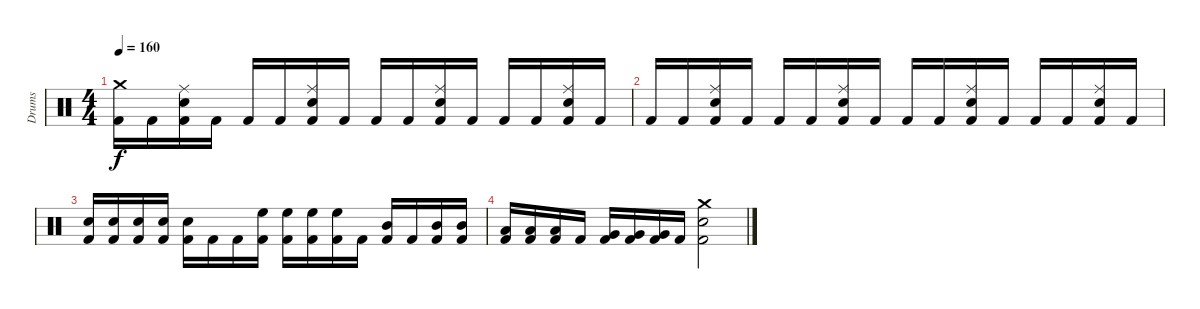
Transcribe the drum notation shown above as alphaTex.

\track ("Drums" "Drums") {instrument percussion}
\staff {score}
\articulation defaults
\ts (4 4)
\tempo 160
\clef neutral
\ks c
("Crash medium (hit)" "Kick (hit) 2").16{dy f} "Kick (hit) 2".16 ("Ride (middle)" "Snare (hit) 2" "Kick (hit) 2").16 "Kick (hit) 2".16 "Kick (hit) 2".16 "Kick (hit) 2".16 ("Ride (middle)" "Snare (hit) 2" "Kick (hit) 2").16 "Kick (hit) 2".16 "Kick (hit) 2".16 "Kick (hit) 2".16 ("Ride (middle)" "Snare (hit) 2" "Kick (hit) 2").16 "Kick (hit) 2".16 "Kick (hit) 2".16 "Kick (hit) 2".16 ("Ride (middle)" "Snare (hit) 2" "Kick (hit) 2").16 "Kick (hit) 2".16 |
"Kick (hit) 2".16 "Kick (hit) 2".16 ("Ride (middle)" "Snare (hit) 2" "Kick (hit) 2").16 "Kick (hit) 2".16 "Kick (hit) 2".16 "Kick (hit) 2".16 ("Ride (middle)" "Snare (hit) 2" "Kick (hit) 2").16 "Kick (hit) 2".16 "Kick (hit) 2".16 "Kick (hit) 2".16 ("Ride (middle)" "Snare (hit) 2" "Kick (hit) 2").16 "Kick (hit) 2".16 "Kick (hit) 2".16 "Kick (hit) 2".16 ("Ride (middle)" "Snare (hit) 2" "Kick (hit) 2").16 "Kick (hit) 2".16 |
("Snare (hit) 2" "Kick (hit) 2").16 ("Snare (hit) 2" "Kick (hit) 2").16 ("Snare (hit) 2" "Kick (hit) 2").16 ("Snare (hit) 2" "Kick (hit) 2").16 ("Snare (hit) 2" "Kick (hit) 2").16 "Kick (hit) 2".16 "Kick (hit) 2".16 ("High Floor Tom (hit)" "Kick (hit) 2").16 ("High Floor Tom (hit)" "Kick (hit) 2").16 ("High Floor Tom (hit)" "Kick (hit) 2").16 ("High Floor Tom (hit)" "Kick (hit) 2").16 "Kick (hit) 2".16 ("Mid Tom (hit)" "Kick (hit) 2").16 "Kick (hit) 2".16 ("Mid Tom (hit)" "Kick (hit) 2").16 ("Mid Tom (hit)" "Kick (hit) 2").16 |
("Low Tom (hit)" "Kick (hit) 2").16 ("Low Tom (hit)" "Kick (hit) 2").16 ("Low Tom (hit)" "Kick (hit) 2").16 "Kick (hit) 2".16 ("Very Low Tom (hit)" "Kick (hit) 2").16 ("Very Low Tom (hit)" "Kick (hit) 2").16 ("Very Low Tom (hit)" "Kick (hit) 2").16 "Kick (hit) 2".16 ("Crash medium (hit)" "Snare (hit) 2" "Kick (hit) 2").2
